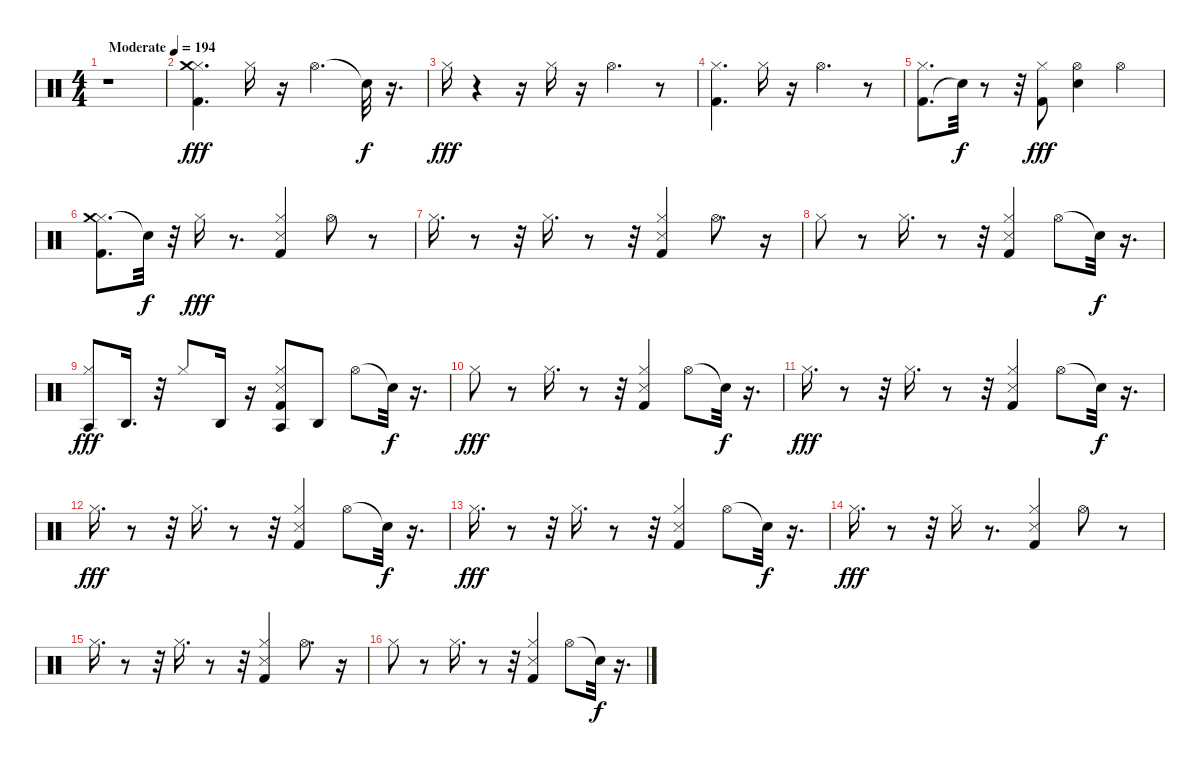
\track "" {instrument percussion}
\staff {score}
\articulation defaults
\ts (4 4)
\tempo (194 "Moderate")
\clef neutral
\ks c
r.1{dy fff} |
("Kick (hit) 2" "Hi-Hat (closed)" "Crash medium (hit)").4{d} "Hi-Hat (closed)".16 r.16 "Hi-Hat (open)".4{d} "Snare (hit)"{t}.32{dy f} r.16{d} |
"Hi-Hat (closed)".16{dy fff} r.4 r.16 "Hi-Hat (closed)".16 r.16 "Hi-Hat (open)".4{d} r.8 |
("Kick (hit) 2" "Hi-Hat (closed)").4{d} "Hi-Hat (closed)".16 r.16 "Hi-Hat (open)".4{d} r.8 |
("Kick (hit) 2" "Hi-Hat (closed)").8{d} "Snare (hit)"{t}.32{dy f} r.8 r.32 ("Hi-Hat (closed)" "Kick (hit) 2").8{dy fff} ("Hi-Hat (open)" "Snare (hit) 2").4 "Hi-Hat (open)".4 |
("Hi-Hat (closed)" "Crash medium (hit)" "Kick (hit) 2").8{d} "Snare (hit)"{t}.32{dy f} r.32 "Hi-Hat (closed)".16{dy fff} r.8{d} ("Snare (side stick) 3" "Kick (hit) 2" "Hi-Hat (closed)").4 "Hi-Hat (open)".8 r.8 |
"Hi-Hat (closed)".16{d} r.8 r.32 "Hi-Hat (closed)".16{d} r.8 r.32 ("Snare (side stick) 3" "Kick (hit) 2" "Hi-Hat (closed)").4 "Hi-Hat (open)".8{d} r.16 |
"Hi-Hat (closed)".8 r.8 "Hi-Hat (closed)".16{d} r.8 r.32 ("Snare (side stick) 3" "Kick (hit) 2" "Hi-Hat (closed)").4 "Hi-Hat (open)".8 "Snare (hit)"{t}.32{dy f} r.16{d} |
("Hi-Hat (closed)" "Agogo tow (hit)").8{dy fff} "Agogo high (hit)".16{d} r.32 "Hi-Hat (closed)".8 "Agogo high (hit)".16 r.16 ("Agogo tow (hit)" "Hi-Hat (closed)" "Snare (side stick) 3" "Kick (hit) 2").8 "Agogo high (hit)".8 "Hi-Hat (open)".8 "Snare (hit)"{t}.32{dy f} r.16{d} |
"Hi-Hat (closed)".8{dy fff} r.8 "Hi-Hat (closed)".16{d} r.8 r.32 ("Snare (side stick) 3" "Kick (hit) 2" "Hi-Hat (closed)").4 "Hi-Hat (open)".8 "Snare (hit)"{t}.32{dy f} r.16{d} |
"Hi-Hat (closed)".16{d dy fff} r.8 r.32 "Hi-Hat (closed)".16{d} r.8 r.32 ("Snare (side stick) 3" "Kick (hit) 2" "Hi-Hat (closed)").4 "Hi-Hat (open)".8 "Snare (hit)"{t}.32{dy f} r.16{d} |
"Hi-Hat (closed)".16{d dy fff} r.8 r.32 "Hi-Hat (closed)".16{d} r.8 r.32 ("Kick (hit) 2" "Snare (side stick) 3" "Hi-Hat (closed)").4 "Hi-Hat (open)".8 "Snare (hit)"{t}.32{dy f} r.16{d} |
"Hi-Hat (closed)".16{d dy fff} r.8 r.32 "Hi-Hat (closed)".16{d} r.8 r.32 ("Kick (hit) 2" "Hi-Hat (closed)" "Snare (side stick) 3").4 "Hi-Hat (open)".8 "Snare (hit)"{t}.32{dy f} r.16{d} |
"Hi-Hat (closed)".16{d dy fff} r.8 r.32 "Hi-Hat (closed)".16 r.8{d} ("Kick (hit) 2" "Snare (side stick) 3" "Hi-Hat (closed)").4 "Hi-Hat (open)".8 r.8 |
"Hi-Hat (closed)".16{d} r.8 r.32 "Hi-Hat (closed)".16{d} r.8 r.32 ("Kick (hit) 2" "Snare (side stick) 3" "Hi-Hat (closed)").4 "Hi-Hat (open)".8{d} r.16 |
"Hi-Hat (closed)".8 r.8 "Hi-Hat (closed)".16{d} r.8 r.32 ("Kick (hit) 2" "Snare (side stick) 3" "Hi-Hat (closed)").4 "Hi-Hat (open)".8 "Snare (hit)"{t}.32{dy f} r.16{d}
